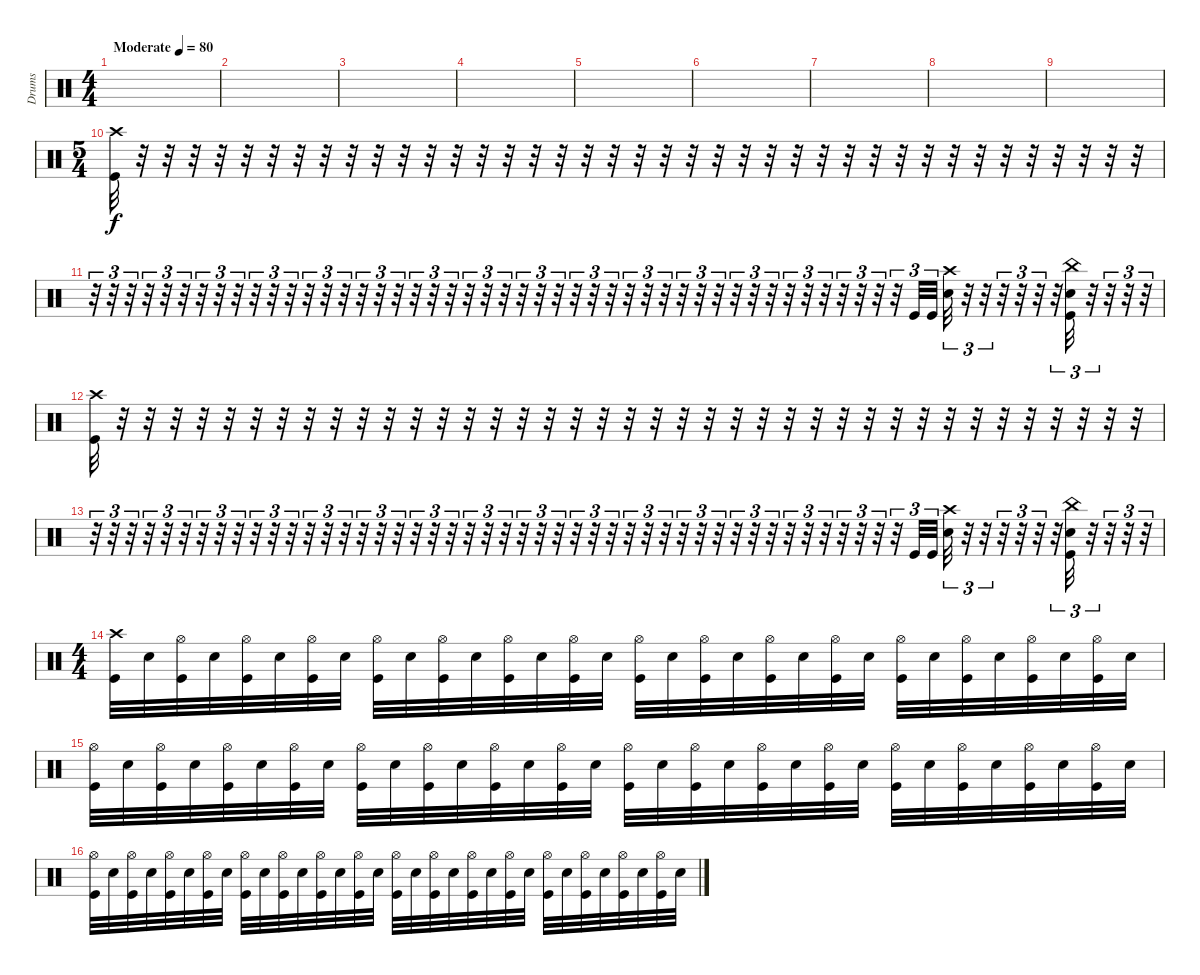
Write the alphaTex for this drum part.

\track ("Drums" "Drums") {instrument percussion}
\staff {score}
\articulation defaults
\ts (4 4)
\tempo (80 "Moderate")
\clef neutral
\ks c
|
|
|
|
|
|
|
|
|
\ts (5 4)
("Crash high (hit)" "Kick (hit)").32 r.32 r.32 r.32 r.32 r.32 r.32 r.32 r.32 r.32 r.32 r.32 r.32 r.32 r.32 r.32 r.32 r.32 r.32 r.32 r.32 r.32 r.32 r.32 r.32 r.32 r.32 r.32 r.32 r.32 r.32 r.32 r.32 r.32 r.32 r.32 r.32 r.32 r.32 r.32 |
r.32{tu (3 2)} r.32{tu (3 2)} r.32{tu (3 2)} r.32{tu (3 2)} r.32{tu (3 2)} r.32{tu (3 2)} r.32{tu (3 2)} r.32{tu (3 2)} r.32{tu (3 2)} r.32{tu (3 2)} r.32{tu (3 2)} r.32{tu (3 2)} r.32{tu (3 2)} r.32{tu (3 2)} r.32{tu (3 2)} r.32{tu (3 2)} r.32{tu (3 2)} r.32{tu (3 2)} r.32{tu (3 2)} r.32{tu (3 2)} r.32{tu (3 2)} r.32{tu (3 2)} r.32{tu (3 2)} r.32{tu (3 2)} r.32{tu (3 2)} r.32{tu (3 2)} r.32{tu (3 2)} r.32{tu (3 2)} r.32{tu (3 2)} r.32{tu (3 2)} r.32{tu (3 2)} r.32{tu (3 2)} r.32{tu (3 2)} r.32{tu (3 2)} r.32{tu (3 2)} r.32{tu (3 2)} r.32{tu (3 2)} r.32{tu (3 2)} r.32{tu (3 2)} r.32{tu (3 2)} r.32{tu (3 2)} r.32{tu (3 2)} r.32{tu (3 2)} r.32{tu (3 2)} r.32{tu (3 2)} r.32{tu (3 2)} "Kick (hit)".32{tu (3 2)} "Kick (hit)".32{tu (3 2)} ("Crash high (hit)" "Snare (hit) 2").32{tu (3 2)} r.32{tu (3 2)} r.32{tu (3 2)} r.32{tu (3 2)} r.32{tu (3 2)} r.32{tu (3 2)} r.32{tu (3 2)} ("China (hit)" "Snare (hit) 2" "Kick (hit)").32{tu (3 2)} r.32{tu (3 2)} r.32{tu (3 2)} r.32{tu (3 2)} r.32{tu (3 2)} |
("Crash high (hit)" "Kick (hit)").32 r.32 r.32 r.32 r.32 r.32 r.32 r.32 r.32 r.32 r.32 r.32 r.32 r.32 r.32 r.32 r.32 r.32 r.32 r.32 r.32 r.32 r.32 r.32 r.32 r.32 r.32 r.32 r.32 r.32 r.32 r.32 r.32 r.32 r.32 r.32 r.32 r.32 r.32 r.32 |
r.32{tu (3 2)} r.32{tu (3 2)} r.32{tu (3 2)} r.32{tu (3 2)} r.32{tu (3 2)} r.32{tu (3 2)} r.32{tu (3 2)} r.32{tu (3 2)} r.32{tu (3 2)} r.32{tu (3 2)} r.32{tu (3 2)} r.32{tu (3 2)} r.32{tu (3 2)} r.32{tu (3 2)} r.32{tu (3 2)} r.32{tu (3 2)} r.32{tu (3 2)} r.32{tu (3 2)} r.32{tu (3 2)} r.32{tu (3 2)} r.32{tu (3 2)} r.32{tu (3 2)} r.32{tu (3 2)} r.32{tu (3 2)} r.32{tu (3 2)} r.32{tu (3 2)} r.32{tu (3 2)} r.32{tu (3 2)} r.32{tu (3 2)} r.32{tu (3 2)} r.32{tu (3 2)} r.32{tu (3 2)} r.32{tu (3 2)} r.32{tu (3 2)} r.32{tu (3 2)} r.32{tu (3 2)} r.32{tu (3 2)} r.32{tu (3 2)} r.32{tu (3 2)} r.32{tu (3 2)} r.32{tu (3 2)} r.32{tu (3 2)} r.32{tu (3 2)} r.32{tu (3 2)} r.32{tu (3 2)} r.32{tu (3 2)} "Kick (hit)".32{tu (3 2)} "Kick (hit)".32{tu (3 2)} ("Crash high (hit)" "Snare (hit) 2").32{tu (3 2)} r.32{tu (3 2)} r.32{tu (3 2)} r.32{tu (3 2)} r.32{tu (3 2)} r.32{tu (3 2)} r.32{tu (3 2)} ("China (hit)" "Snare (hit) 2" "Kick (hit)").32{tu (3 2)} r.32{tu (3 2)} r.32{tu (3 2)} r.32{tu (3 2)} r.32{tu (3 2)} |
\ts (4 4)
("Crash high (hit)" "Kick (hit)").32 "Snare (hit) 2".32 ("Hi-Hat (open)" "Kick (hit)").32 "Snare (hit) 2".32 ("Hi-Hat (open)" "Kick (hit)").32 "Snare (hit) 2".32 ("Hi-Hat (open)" "Kick (hit)").32 "Snare (hit) 2".32 ("Hi-Hat (open)" "Kick (hit)").32 "Snare (hit) 2".32 ("Hi-Hat (open)" "Kick (hit)").32 "Snare (hit) 2".32 ("Hi-Hat (open)" "Kick (hit)").32 "Snare (hit) 2".32 ("Hi-Hat (open)" "Kick (hit)").32 "Snare (hit) 2".32 ("Hi-Hat (open)" "Kick (hit)").32 "Snare (hit) 2".32 ("Hi-Hat (open)" "Kick (hit)").32 "Snare (hit) 2".32 ("Hi-Hat (open)" "Kick (hit)").32 "Snare (hit) 2".32 ("Hi-Hat (open)" "Kick (hit)").32 "Snare (hit) 2".32 ("Hi-Hat (open)" "Kick (hit)").32 "Snare (hit) 2".32 ("Hi-Hat (open)" "Kick (hit)").32 "Snare (hit) 2".32 ("Hi-Hat (open)" "Kick (hit)").32 "Snare (hit) 2".32 ("Hi-Hat (open)" "Kick (hit)").32 "Snare (hit) 2".32 |
("Hi-Hat (open)" "Kick (hit)").32 "Snare (hit) 2".32 ("Hi-Hat (open)" "Kick (hit)").32 "Snare (hit) 2".32 ("Hi-Hat (open)" "Kick (hit)").32 "Snare (hit) 2".32 ("Hi-Hat (open)" "Kick (hit)").32 "Snare (hit) 2".32 ("Hi-Hat (open)" "Kick (hit)").32 "Snare (hit) 2".32 ("Hi-Hat (open)" "Kick (hit)").32 "Snare (hit) 2".32 ("Hi-Hat (open)" "Kick (hit)").32 "Snare (hit) 2".32 ("Hi-Hat (open)" "Kick (hit)").32 "Snare (hit) 2".32 ("Hi-Hat (open)" "Kick (hit)").32 "Snare (hit) 2".32 ("Hi-Hat (open)" "Kick (hit)").32 "Snare (hit) 2".32 ("Hi-Hat (open)" "Kick (hit)").32 "Snare (hit) 2".32 ("Hi-Hat (open)" "Kick (hit)").32 "Snare (hit) 2".32 ("Hi-Hat (open)" "Kick (hit)").32 "Snare (hit) 2".32 ("Hi-Hat (open)" "Kick (hit)").32 "Snare (hit) 2".32 ("Hi-Hat (open)" "Kick (hit)").32 "Snare (hit) 2".32 ("Hi-Hat (open)" "Kick (hit)").32 "Snare (hit) 2".32 |
("Hi-Hat (open)" "Kick (hit)").32 "Snare (hit) 2".32 ("Hi-Hat (open)" "Kick (hit)").32 "Snare (hit) 2".32 ("Hi-Hat (open)" "Kick (hit)").32 "Snare (hit) 2".32 ("Hi-Hat (open)" "Kick (hit)").32 "Snare (hit) 2".32 ("Hi-Hat (open)" "Kick (hit)").32 "Snare (hit) 2".32 ("Hi-Hat (open)" "Kick (hit)").32 "Snare (hit) 2".32 ("Hi-Hat (open)" "Kick (hit)").32 "Snare (hit) 2".32 ("Hi-Hat (open)" "Kick (hit)").32 "Snare (hit) 2".32 ("Hi-Hat (open)" "Kick (hit)").32 "Snare (hit) 2".32 ("Hi-Hat (open)" "Kick (hit)").32 "Snare (hit) 2".32 ("Hi-Hat (open)" "Kick (hit)").32 "Snare (hit) 2".32 ("Hi-Hat (open)" "Kick (hit)").32 "Snare (hit) 2".32 ("Hi-Hat (open)" "Kick (hit)").32 "Snare (hit) 2".32 ("Hi-Hat (open)" "Kick (hit)").32 "Snare (hit) 2".32 ("Hi-Hat (open)" "Kick (hit)").32 "Snare (hit) 2".32 ("Hi-Hat (open)" "Kick (hit)").32 "Snare (hit) 2".32
